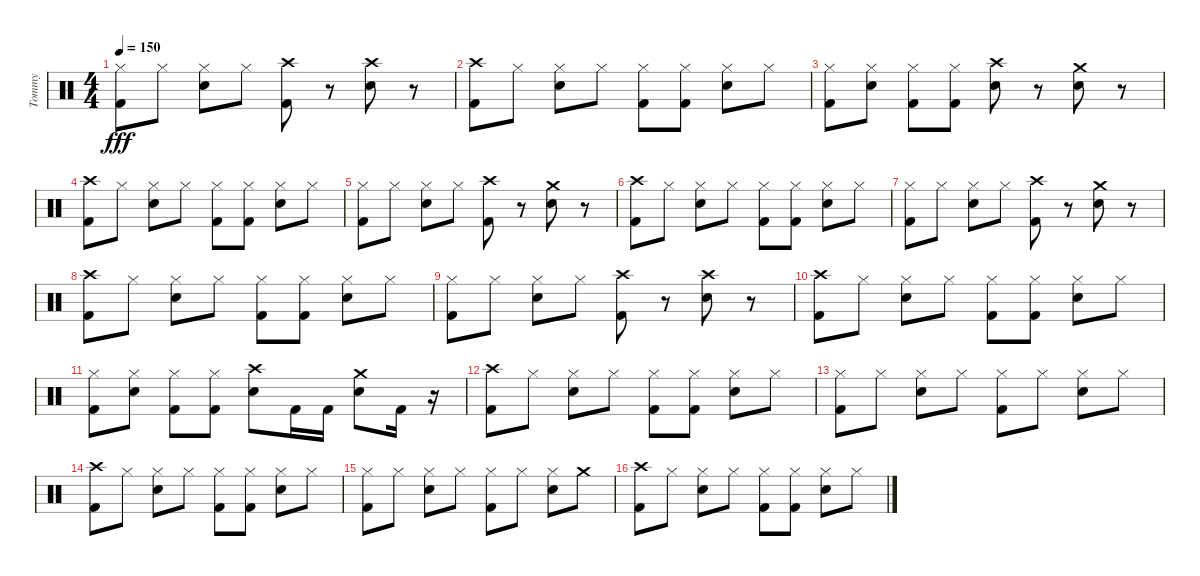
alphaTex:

\track ("Tommy" "Tommy") {instrument percussion}
\staff {score}
\articulation defaults
\ts (4 4)
\tempo 150
\clef neutral
\ks c
("Hi-Hat (closed)" "Kick (hit) 2").8{dy fff} "Hi-Hat (closed)".8 ("Hi-Hat (closed)" "Snare (hit) 2").8 "Hi-Hat (closed)".8 ("Crash high (hit)" "Kick (hit) 2").8 r.8 ("Snare (hit) 2" "Crash high (hit)").8 r.8 |
("Kick (hit) 2" "Crash high (hit)").8 "Hi-Hat (closed)".8 ("Hi-Hat (closed)" "Snare (hit) 2").8 "Hi-Hat (closed)".8 ("Hi-Hat (closed)" "Kick (hit) 2").8 ("Hi-Hat (closed)" "Kick (hit) 2").8 ("Hi-Hat (closed)" "Snare (hit) 2").8 "Hi-Hat (closed)".8 |
("Hi-Hat (closed)" "Kick (hit) 2").8 ("Hi-Hat (closed)" "Snare (hit) 2").8 ("Hi-Hat (closed)" "Kick (hit) 2").8 ("Hi-Hat (closed)" "Kick (hit) 2").8 ("Crash high (hit)" "Snare (hit) 2").8 r.8 ("Snare (hit) 2" "Crash medium (hit)").8 r.8 |
("Kick (hit) 2" "Crash high (hit)").8 "Hi-Hat (closed)".8 ("Hi-Hat (closed)" "Snare (hit) 2").8 "Hi-Hat (closed)".8 ("Hi-Hat (closed)" "Kick (hit) 2").8 ("Hi-Hat (closed)" "Kick (hit) 2").8 ("Hi-Hat (closed)" "Snare (hit) 2").8 "Hi-Hat (closed)".8 |
("Hi-Hat (closed)" "Kick (hit) 2").8 "Hi-Hat (closed)".8 ("Hi-Hat (closed)" "Snare (hit) 2").8 "Hi-Hat (closed)".8 ("Crash high (hit)" "Kick (hit) 2").8 r.8 ("Snare (hit) 2" "Crash medium (hit)").8 r.8 |
("Kick (hit) 2" "Crash high (hit)").8 "Hi-Hat (closed)".8 ("Hi-Hat (closed)" "Snare (hit) 2").8 "Hi-Hat (closed)".8 ("Hi-Hat (closed)" "Kick (hit) 2").8 ("Hi-Hat (closed)" "Kick (hit) 2").8 ("Hi-Hat (closed)" "Snare (hit) 2").8 "Hi-Hat (closed)".8 |
("Hi-Hat (closed)" "Kick (hit) 2").8 "Hi-Hat (closed)".8 ("Hi-Hat (closed)" "Snare (hit) 2").8 "Hi-Hat (closed)".8 ("Crash high (hit)" "Kick (hit) 2").8 r.8 ("Snare (hit) 2" "Crash medium (hit)").8 r.8 |
("Kick (hit) 2" "Crash high (hit)").8 "Hi-Hat (closed)".8 ("Hi-Hat (closed)" "Snare (hit) 2").8 "Hi-Hat (closed)".8 ("Hi-Hat (closed)" "Kick (hit) 2").8 ("Hi-Hat (closed)" "Kick (hit) 2").8 ("Hi-Hat (closed)" "Snare (hit) 2").8 "Hi-Hat (closed)".8 |
("Hi-Hat (closed)" "Kick (hit) 2").8 "Hi-Hat (closed)".8 ("Hi-Hat (closed)" "Snare (hit) 2").8 "Hi-Hat (closed)".8 ("Crash high (hit)" "Kick (hit) 2").8 r.8 ("Snare (hit) 2" "Crash high (hit)").8 r.8 |
("Kick (hit) 2" "Crash high (hit)").8 "Hi-Hat (closed)".8 ("Hi-Hat (closed)" "Snare (hit) 2").8 "Hi-Hat (closed)".8 ("Hi-Hat (closed)" "Kick (hit) 2").8 ("Hi-Hat (closed)" "Kick (hit) 2").8 ("Hi-Hat (closed)" "Snare (hit) 2").8 "Hi-Hat (closed)".8 |
("Hi-Hat (closed)" "Kick (hit) 2").8 ("Hi-Hat (closed)" "Snare (hit) 2").8 ("Hi-Hat (closed)" "Kick (hit) 2").8 ("Hi-Hat (closed)" "Kick (hit) 2").8 ("Crash high (hit)" "Snare (hit) 2").8 "Kick (hit) 2".16 "Kick (hit) 2".16 ("Crash medium (hit)" "Snare (hit) 2").8 "Kick (hit) 2".16 r.16 |
("Kick (hit) 2" "Crash high (hit)").8 "Hi-Hat (closed)".8 ("Hi-Hat (closed)" "Snare (hit) 2").8 "Hi-Hat (closed)".8 ("Hi-Hat (closed)" "Kick (hit) 2").8 ("Hi-Hat (closed)" "Kick (hit) 2").8 ("Hi-Hat (closed)" "Snare (hit) 2").8 "Hi-Hat (closed)".8 |
("Hi-Hat (closed)" "Kick (hit) 2").8 "Hi-Hat (closed)".8 ("Hi-Hat (closed)" "Snare (hit) 2").8 "Hi-Hat (closed)".8 ("Kick (hit) 2" "Hi-Hat (closed)").8 "Hi-Hat (closed)".8 ("Snare (hit) 2" "Hi-Hat (closed)").8 "Hi-Hat (closed)".8 |
("Kick (hit) 2" "Crash high (hit)").8 "Hi-Hat (closed)".8 ("Hi-Hat (closed)" "Snare (hit) 2").8 "Hi-Hat (closed)".8 ("Hi-Hat (closed)" "Kick (hit) 2").8 ("Hi-Hat (closed)" "Kick (hit) 2").8 ("Hi-Hat (closed)" "Snare (hit) 2").8 "Hi-Hat (closed)".8 |
("Hi-Hat (closed)" "Kick (hit) 2").8 "Hi-Hat (closed)".8 ("Hi-Hat (closed)" "Snare (hit) 2").8 "Hi-Hat (closed)".8 ("Kick (hit) 2" "Hi-Hat (closed)").8 "Hi-Hat (closed)".8 ("Snare (hit) 2" "Hi-Hat (closed)").8 "Crash medium (hit)".8 |
("Kick (hit) 2" "Crash high (hit)").8 "Hi-Hat (closed)".8 ("Hi-Hat (closed)" "Snare (hit) 2").8 "Hi-Hat (closed)".8 ("Hi-Hat (closed)" "Kick (hit) 2").8 ("Hi-Hat (closed)" "Kick (hit) 2").8 ("Hi-Hat (closed)" "Snare (hit) 2").8 "Hi-Hat (closed)".8
